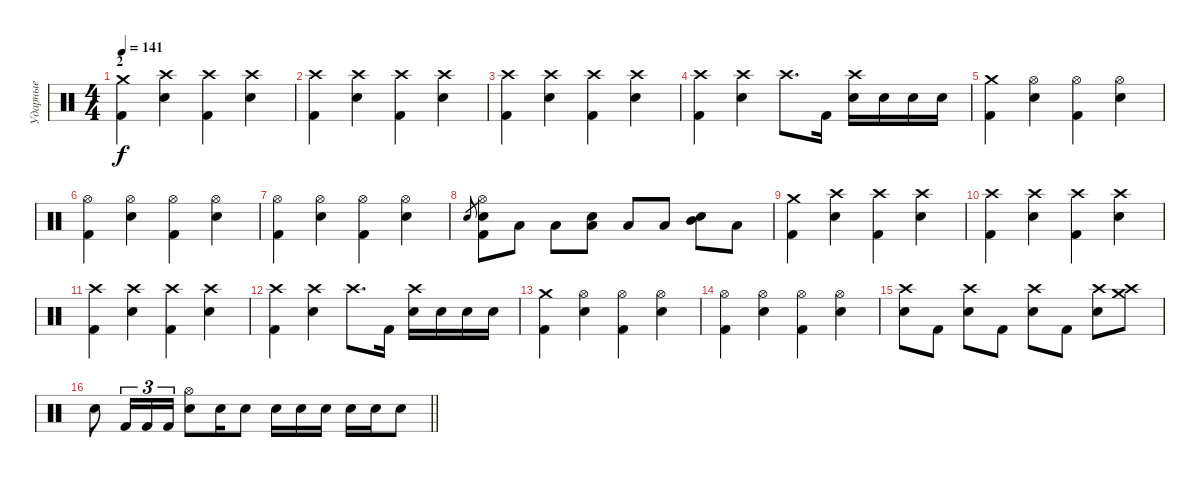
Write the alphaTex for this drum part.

\track ("Ударные" "Ударные") {instrument percussion}
\staff {score}
\articulation defaults
\ts (4 4)
\section ("" "2")
\tempo 141
\clef neutral
\ks c
("Crash medium (hit)" "Kick (hit) 2").4{dy f} ("Crash high (hit)" "Snare (hit) 2").4 ("Crash high (hit)" "Kick (hit) 2").4 ("Crash high (hit)" "Snare (hit) 2").4 |
("Crash high (hit)" "Kick (hit) 2").4 ("Crash high (hit)" "Snare (hit) 2").4 ("Crash high (hit)" "Kick (hit) 2").4 ("Crash high (hit)" "Snare (hit) 2").4 |
("Crash high (hit)" "Kick (hit) 2").4 ("Crash high (hit)" "Snare (hit) 2").4 ("Crash high (hit)" "Kick (hit) 2").4 ("Crash high (hit)" "Snare (hit) 2").4 |
("Crash high (hit)" "Kick (hit) 2").4 ("Crash high (hit)" "Snare (hit) 2").4 "Crash high (hit)".8{d} "Kick (hit) 2".16 ("Crash high (hit)" "Snare (hit) 2").16 "Snare (hit) 2".16 "Snare (hit) 2".16 "Snare (hit) 2".16 |
("Crash medium (hit)" "Kick (hit) 2").4 ("Hi-Hat (open)" "Snare (hit) 2").4 ("Hi-Hat (open)" "Kick (hit) 2").4 ("Hi-Hat (open)" "Snare (hit) 2").4 |
("Hi-Hat (open)" "Kick (hit) 2").4 ("Hi-Hat (open)" "Snare (hit) 2").4 ("Hi-Hat (open)" "Kick (hit) 2").4 ("Hi-Hat (open)" "Snare (hit) 2").4 |
("Hi-Hat (open)" "Kick (hit) 2").4 ("Hi-Hat (open)" "Snare (hit) 2").4 ("Hi-Hat (open)" "Kick (hit) 2").4 ("Hi-Hat (open)" "Snare (hit) 2").4 |
"Snare (hit) 2".8{gr} ("Hi-Hat (open)" "Snare (hit) 2" "Kick (hit) 2").8 "Low Floor Tom (hit)".8 "Low Floor Tom (hit)".8 ("Snare (hit) 2" "Low Tom (hit)").8 "Low Floor Tom (hit)".8 "Low Floor Tom (hit)".8 ("Snare (hit) 2" "Mid Tom (hit)").8 "Low Floor Tom (hit)".8 |
("Crash medium (hit)" "Kick (hit) 2").4 ("Crash high (hit)" "Snare (hit) 2").4 ("Crash high (hit)" "Kick (hit) 2").4 ("Crash high (hit)" "Snare (hit) 2").4 |
("Crash high (hit)" "Kick (hit) 2").4 ("Crash high (hit)" "Snare (hit) 2").4 ("Crash high (hit)" "Kick (hit) 2").4 ("Crash high (hit)" "Snare (hit) 2").4 |
("Crash high (hit)" "Kick (hit) 2").4 ("Crash high (hit)" "Snare (hit) 2").4 ("Crash high (hit)" "Kick (hit) 2").4 ("Crash high (hit)" "Snare (hit) 2").4 |
("Crash high (hit)" "Kick (hit) 2").4 ("Crash high (hit)" "Snare (hit) 2").4 "Crash high (hit)".8{d} "Kick (hit) 2".16 ("Crash high (hit)" "Snare (hit) 2").16 "Snare (hit) 2".16 "Snare (hit) 2".16 "Snare (hit) 2".16 |
("Crash medium (hit)" "Kick (hit) 2").4 ("Hi-Hat (open)" "Snare (hit) 2").4 ("Hi-Hat (open)" "Kick (hit) 2").4 ("Hi-Hat (open)" "Snare (hit) 2").4 |
("Hi-Hat (open)" "Kick (hit) 2").4 ("Hi-Hat (open)" "Snare (hit) 2").4 ("Hi-Hat (open)" "Kick (hit) 2").4 ("Hi-Hat (open)" "Snare (hit) 2").4 |
("Crash high (hit)" "Snare (hit) 2").8 "Kick (hit) 2".8 ("Crash high (hit)" "Snare (hit) 2").8 "Kick (hit) 2".8 ("Crash high (hit)" "Snare (hit) 2").8 "Kick (hit) 2".8 ("Crash high (hit)" "Snare (hit) 2").8 ("Crash medium (hit)" "Crash high (hit)").8 |
\barLineRight lightlight "Snare (hit) 2".8 "Kick (hit) 2".16{tu (3 2)} "Kick (hit) 2".16{tu (3 2)} "Kick (hit) 2".16{tu (3 2)}
("Hi-Hat (open)" "Snare (hit) 2").8 "Snare (hit) 2".16 "Snare (hit) 2".8 "Snare (hit) 2".16 "Snare (hit) 2".16 "Snare (hit) 2".16 "Snare (hit) 2".16 "Snare (hit) 2".16 "Snare (hit) 2".8
